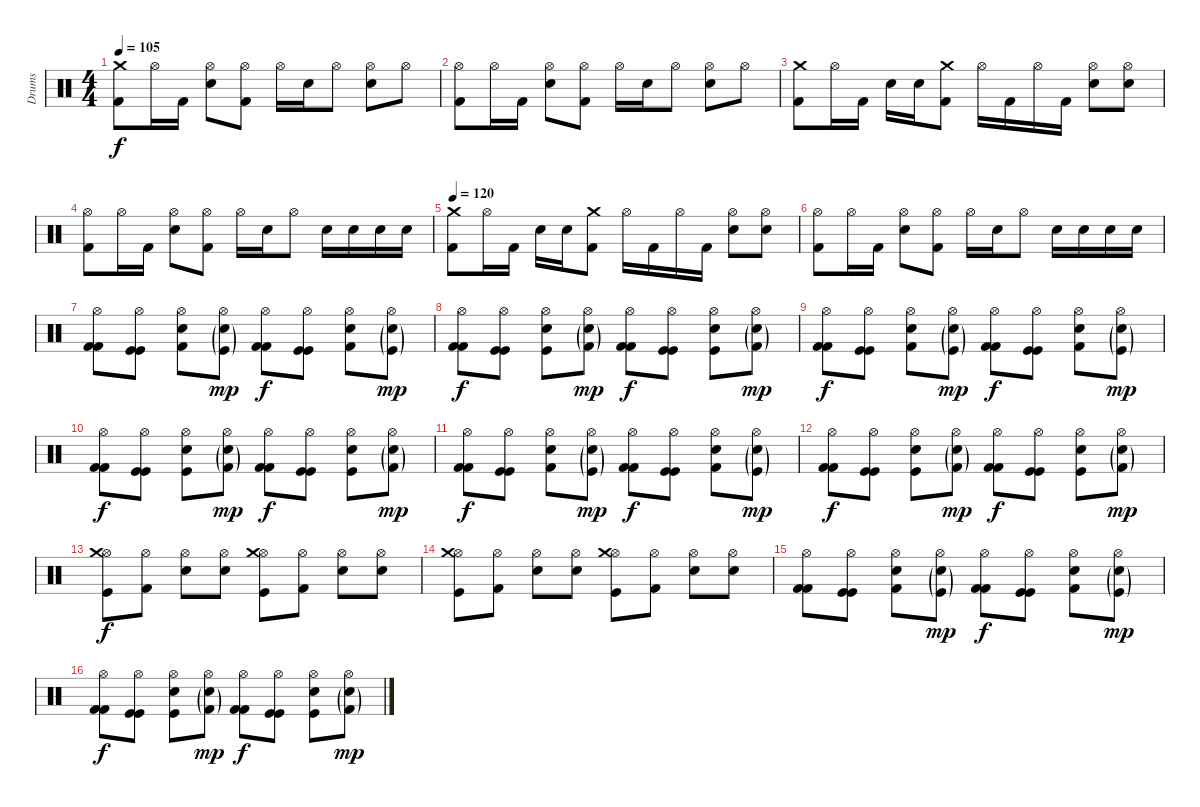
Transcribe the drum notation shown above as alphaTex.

\track ("Drums" "Drums") {instrument percussion}
\staff {score}
\articulation defaults
\ts (4 4)
\tempo 105
\clef neutral
\ks c
("Crash medium (hit)" "Kick (hit) 2").8{dy f} "Hi-Hat (open)".16 "Kick (hit) 2".16 ("Hi-Hat (open)" "Electric Snare (hit)").8 ("Hi-Hat (open)" "Kick (hit) 2").8 "Hi-Hat (open)".16 "Electric Snare (hit)".16 "Hi-Hat (open)".8 ("Hi-Hat (open)" "Electric Snare (hit)").8 "Hi-Hat (open)".8 |
("Hi-Hat (open)" "Kick (hit) 2").8 "Hi-Hat (open)".16 "Kick (hit) 2".16 ("Hi-Hat (open)" "Electric Snare (hit)").8 ("Hi-Hat (open)" "Kick (hit) 2").8 "Hi-Hat (open)".16 "Electric Snare (hit)".16 "Hi-Hat (open)".8 ("Hi-Hat (open)" "Electric Snare (hit)").8 "Hi-Hat (open)".8 |
("Crash medium (hit)" "Kick (hit) 2").8 "Hi-Hat (open)".16 "Kick (hit) 2".16 "Electric Snare (hit)".16 "Electric Snare (hit)".16 ("Crash medium (hit)" "Kick (hit) 2").8 "Hi-Hat (open)".16 "Kick (hit) 2".16 "Hi-Hat (open)".16 "Kick (hit) 2".16 ("Hi-Hat (open)" "Electric Snare (hit)").8 ("Hi-Hat (open)" "Electric Snare (hit)").8 |
("Hi-Hat (open)" "Kick (hit) 2").8 "Hi-Hat (open)".16 "Kick (hit) 2".16 ("Hi-Hat (open)" "Electric Snare (hit)").8 ("Hi-Hat (open)" "Kick (hit) 2").8 "Hi-Hat (open)".16 "Electric Snare (hit)".16 "Hi-Hat (open)".8 "Electric Snare (hit)".16 "Electric Snare (hit)".16 "Electric Snare (hit)".16 "Electric Snare (hit)".16 |
\tempo 120
("Crash medium (hit)" "Kick (hit) 2").8 "Hi-Hat (open)".16 "Kick (hit) 2".16 "Electric Snare (hit)".16 "Electric Snare (hit)".16 ("Crash medium (hit)" "Kick (hit) 2").8 "Hi-Hat (open)".16 "Kick (hit) 2".16 "Hi-Hat (open)".16 "Kick (hit) 2".16 ("Hi-Hat (open)" "Electric Snare (hit)").8 ("Hi-Hat (open)" "Electric Snare (hit)").8 |
("Hi-Hat (open)" "Kick (hit) 2").8 "Hi-Hat (open)".16 "Kick (hit) 2".16 ("Hi-Hat (open)" "Electric Snare (hit)").8 ("Hi-Hat (open)" "Kick (hit) 2").8 "Hi-Hat (open)".16 "Electric Snare (hit)".16 "Hi-Hat (open)".8 "Electric Snare (hit)".16 "Electric Snare (hit)".16 "Electric Snare (hit)".16 "Electric Snare (hit)".16 |
("Hi-Hat (open)" "Kick (hit) 2" "Kick (hit) 2").8 ("Hi-Hat (open)" "Kick (hit)" "Kick (hit)").8 ("Hi-Hat (open)" "Snare (hit) 2" "Kick (hit) 2").8 ("Hi-Hat (open)" "Electric Snare (hit)"{g} "Kick (hit)"{g}).8{dy mp} ("Hi-Hat (open)" "Kick (hit) 2" "Kick (hit) 2").8{dy f} ("Hi-Hat (open)" "Kick (hit)" "Kick (hit)").8 ("Hi-Hat (open)" "Snare (hit) 2" "Kick (hit) 2").8 ("Hi-Hat (open)" "Electric Snare (hit)"{g} "Kick (hit)"{g}).8{dy mp} |
("Hi-Hat (open)" "Kick (hit) 2" "Kick (hit) 2").8{dy f} ("Hi-Hat (open)" "Kick (hit)" "Kick (hit)").8 ("Hi-Hat (open)" "Electric Snare (hit)" "Kick (hit)").8 ("Hi-Hat (open)" "Snare (hit) 2"{g} "Kick (hit) 2"{g}).8{dy mp} ("Hi-Hat (open)" "Kick (hit) 2" "Kick (hit) 2").8{dy f} ("Hi-Hat (open)" "Kick (hit)" "Kick (hit)").8 ("Hi-Hat (open)" "Electric Snare (hit)" "Kick (hit)").8 ("Hi-Hat (open)" "Snare (hit) 2"{g} "Kick (hit) 2"{g}).8{dy mp} |
("Hi-Hat (open)" "Kick (hit) 2" "Kick (hit) 2").8{dy f} ("Hi-Hat (open)" "Kick (hit)" "Kick (hit)").8 ("Hi-Hat (open)" "Snare (hit) 2" "Kick (hit) 2").8 ("Hi-Hat (open)" "Electric Snare (hit)"{g} "Kick (hit)"{g}).8{dy mp} ("Hi-Hat (open)" "Kick (hit) 2" "Kick (hit) 2").8{dy f} ("Hi-Hat (open)" "Kick (hit)" "Kick (hit)").8 ("Hi-Hat (open)" "Snare (hit) 2" "Kick (hit) 2").8 ("Hi-Hat (open)" "Electric Snare (hit)"{g} "Kick (hit)"{g}).8{dy mp} |
("Hi-Hat (open)" "Kick (hit) 2" "Kick (hit) 2").8{dy f} ("Hi-Hat (open)" "Kick (hit)" "Kick (hit)").8 ("Hi-Hat (open)" "Electric Snare (hit)" "Kick (hit)").8 ("Hi-Hat (open)" "Snare (hit) 2"{g} "Kick (hit) 2"{g}).8{dy mp} ("Hi-Hat (open)" "Kick (hit) 2" "Kick (hit) 2").8{dy f} ("Hi-Hat (open)" "Kick (hit)" "Kick (hit)").8 ("Hi-Hat (open)" "Electric Snare (hit)" "Kick (hit)").8 ("Hi-Hat (open)" "Snare (hit) 2"{g} "Kick (hit) 2"{g}).8{dy mp} |
("Hi-Hat (open)" "Kick (hit) 2" "Kick (hit) 2").8{dy f} ("Hi-Hat (open)" "Kick (hit)" "Kick (hit)").8 ("Hi-Hat (open)" "Snare (hit) 2" "Kick (hit) 2").8 ("Hi-Hat (open)" "Electric Snare (hit)"{g} "Kick (hit)"{g}).8{dy mp} ("Hi-Hat (open)" "Kick (hit) 2" "Kick (hit) 2").8{dy f} ("Hi-Hat (open)" "Kick (hit)" "Kick (hit)").8 ("Hi-Hat (open)" "Snare (hit) 2" "Kick (hit) 2").8 ("Hi-Hat (open)" "Electric Snare (hit)"{g} "Kick (hit)"{g}).8{dy mp} |
("Hi-Hat (open)" "Kick (hit) 2" "Kick (hit) 2").8{dy f} ("Hi-Hat (open)" "Kick (hit)" "Kick (hit)").8 ("Hi-Hat (open)" "Electric Snare (hit)" "Kick (hit)").8 ("Hi-Hat (open)" "Snare (hit) 2"{g} "Kick (hit) 2"{g}).8{dy mp} ("Hi-Hat (open)" "Kick (hit) 2" "Kick (hit) 2").8{dy f} ("Hi-Hat (open)" "Kick (hit)" "Kick (hit)").8 ("Hi-Hat (open)" "Electric Snare (hit)" "Kick (hit)").8 ("Hi-Hat (open)" "Snare (hit) 2"{g} "Kick (hit) 2"{g}).8{dy mp} |
("Hi-Hat (open)" "Crash medium (hit)" "Kick (hit)").8{dy f} ("Hi-Hat (open)" "Kick (hit) 2").8 ("Hi-Hat (open)" "Electric Snare (hit)").8 ("Hi-Hat (open)" "Snare (hit) 2").8 ("Hi-Hat (open)" "Crash medium (hit)" "Kick (hit)").8 ("Hi-Hat (open)" "Kick (hit) 2").8 ("Hi-Hat (open)" "Electric Snare (hit)").8 ("Hi-Hat (open)" "Snare (hit) 2").8 |
("Hi-Hat (open)" "Crash medium (hit)" "Kick (hit)").8 ("Hi-Hat (open)" "Kick (hit) 2").8 ("Hi-Hat (open)" "Electric Snare (hit)").8 ("Hi-Hat (open)" "Snare (hit) 2").8 ("Hi-Hat (open)" "Crash medium (hit)" "Kick (hit)").8 ("Hi-Hat (open)" "Kick (hit) 2").8 ("Hi-Hat (open)" "Electric Snare (hit)").8 ("Hi-Hat (open)" "Snare (hit) 2").8 |
("Hi-Hat (open)" "Kick (hit) 2" "Kick (hit) 2").8 ("Hi-Hat (open)" "Kick (hit)" "Kick (hit)").8 ("Hi-Hat (open)" "Snare (hit) 2" "Kick (hit) 2").8 ("Hi-Hat (open)" "Electric Snare (hit)"{g} "Kick (hit)"{g}).8{dy mp} ("Hi-Hat (open)" "Kick (hit) 2" "Kick (hit) 2").8{dy f} ("Hi-Hat (open)" "Kick (hit)" "Kick (hit)").8 ("Hi-Hat (open)" "Snare (hit) 2" "Kick (hit) 2").8 ("Hi-Hat (open)" "Electric Snare (hit)"{g} "Kick (hit)"{g}).8{dy mp} |
("Hi-Hat (open)" "Kick (hit) 2" "Kick (hit) 2").8{dy f} ("Hi-Hat (open)" "Kick (hit)" "Kick (hit)").8 ("Hi-Hat (open)" "Electric Snare (hit)" "Kick (hit)").8 ("Hi-Hat (open)" "Snare (hit) 2"{g} "Kick (hit) 2"{g}).8{dy mp} ("Hi-Hat (open)" "Kick (hit) 2" "Kick (hit) 2").8{dy f} ("Hi-Hat (open)" "Kick (hit)" "Kick (hit)").8 ("Hi-Hat (open)" "Electric Snare (hit)" "Kick (hit)").8 ("Hi-Hat (open)" "Snare (hit) 2"{g} "Kick (hit) 2"{g}).8{dy mp}
